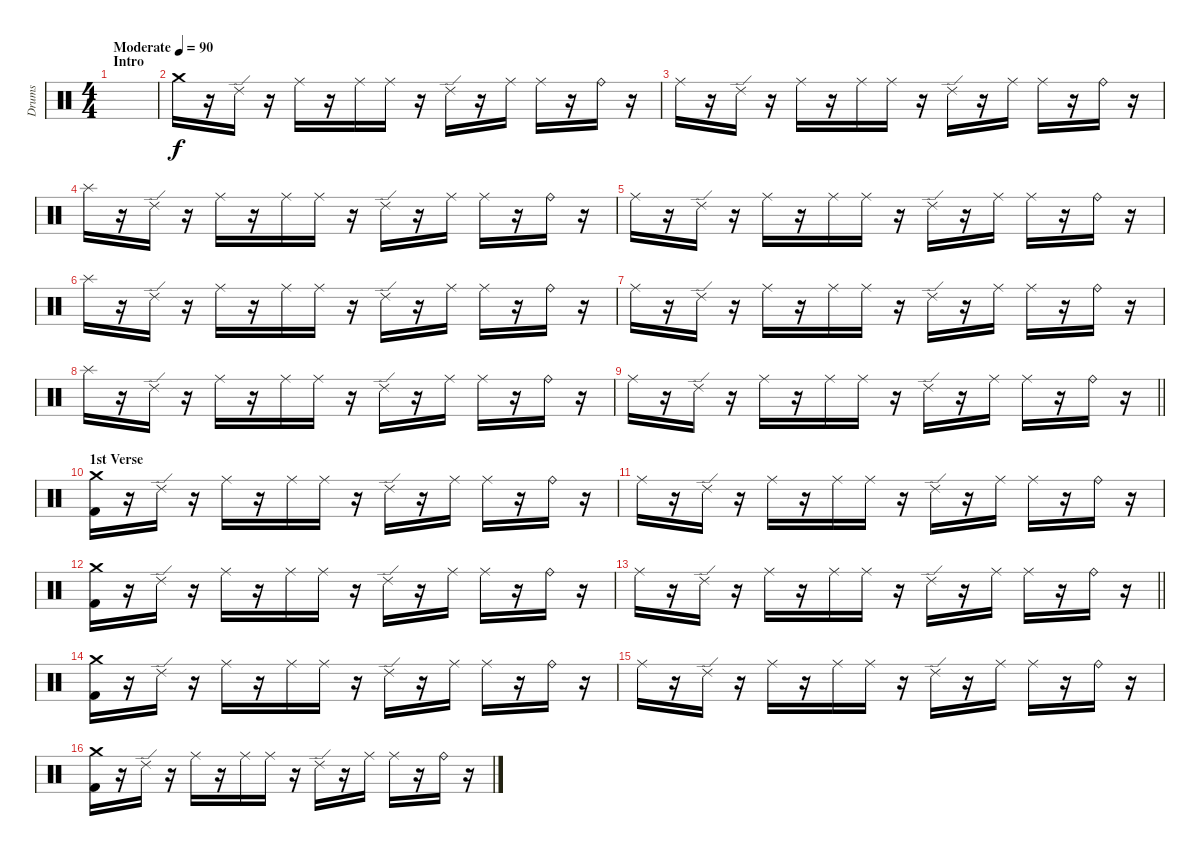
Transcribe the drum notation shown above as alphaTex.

\track ("Drums" "Drums") {instrument percussion}
\staff {score}
\articulation defaults
\ts (4 4)
\section ("" "Intro")
\tempo (90 "Moderate")
\clef neutral
\ks c
|
"Crash medium (hit)".16 r.16 "Ride (edge) 2".16 r.16 "Ride (middle)".16 r.16 "Ride (middle)".16 "Ride (middle)".16 r.16 "Ride (edge) 2".16 r.16 "Ride (middle)".16 "Ride (middle)".16 r.16 "Ride (bell)".16 r.16 |
"Ride (middle)".16 r.16 "Ride (edge) 2".16 r.16 "Ride (middle)".16 r.16 "Ride (middle)".16 "Ride (middle)".16 r.16 "Ride (edge) 2".16 r.16 "Ride (middle)".16 "Ride (middle)".16 r.16 "Ride (bell)".16 r.16 |
"Splash (hit)".16 r.16 "Ride (edge) 2".16 r.16 "Ride (middle)".16 r.16 "Ride (middle)".16 "Ride (middle)".16 r.16 "Ride (edge) 2".16 r.16 "Ride (middle)".16 "Ride (middle)".16 r.16 "Ride (bell)".16 r.16 |
"Ride (middle)".16 r.16 "Ride (edge) 2".16 r.16 "Ride (middle)".16 r.16 "Ride (middle)".16 "Ride (middle)".16 r.16 "Ride (edge) 2".16 r.16 "Ride (middle)".16 "Ride (middle)".16 r.16 "Ride (bell)".16 r.16 |
"Splash (hit)".16 r.16 "Ride (edge) 2".16 r.16 "Ride (middle)".16 r.16 "Ride (middle)".16 "Ride (middle)".16 r.16 "Ride (edge) 2".16 r.16 "Ride (middle)".16 "Ride (middle)".16 r.16 "Ride (bell)".16 r.16 |
"Ride (middle)".16 r.16 "Ride (edge) 2".16 r.16 "Ride (middle)".16 r.16 "Ride (middle)".16 "Ride (middle)".16 r.16 "Ride (edge) 2".16 r.16 "Ride (middle)".16 "Ride (middle)".16 r.16 "Ride (bell)".16 r.16 |
"Splash (hit)".16 r.16 "Ride (edge) 2".16 r.16 "Ride (middle)".16 r.16 "Ride (middle)".16 "Ride (middle)".16 r.16 "Ride (edge) 2".16 r.16 "Ride (middle)".16 "Ride (middle)".16 r.16 "Ride (bell)".16 r.16 |
\barLineRight lightlight "Ride (middle)".16
r.16 "Ride (edge) 2".16 r.16 "Ride (middle)".16 r.16 "Ride (middle)".16 "Ride (middle)".16 r.16 "Ride (edge) 2".16 r.16 "Ride (middle)".16 "Ride (middle)".16 r.16 "Ride (bell)".16 r.16 |
\section ("" "1st Verse")
("Crash medium (hit)" "Kick (hit) 2").16 r.16 "Ride (edge) 2".16 r.16 "Ride (middle)".16 r.16 "Ride (middle)".16 "Ride (middle)".16 r.16 "Ride (edge) 2".16 r.16 "Ride (middle)".16 "Ride (middle)".16 r.16 "Ride (bell)".16 r.16 |
"Ride (middle)".16 r.16 "Ride (edge) 2".16 r.16 "Ride (middle)".16 r.16 "Ride (middle)".16 "Ride (middle)".16 r.16 "Ride (edge) 2".16 r.16 "Ride (middle)".16 "Ride (middle)".16 r.16 "Ride (bell)".16 r.16 |
("Crash medium (hit)" "Kick (hit) 2").16 r.16 "Ride (edge) 2".16 r.16 "Ride (middle)".16 r.16 "Ride (middle)".16 "Ride (middle)".16 r.16 "Ride (edge) 2".16 r.16 "Ride (middle)".16 "Ride (middle)".16 r.16 "Ride (bell)".16 r.16 |
\barLineRight lightlight "Ride (middle)".16
r.16 "Ride (edge) 2".16 r.16 "Ride (middle)".16 r.16 "Ride (middle)".16 "Ride (middle)".16 r.16 "Ride (edge) 2".16 r.16 "Ride (middle)".16 "Ride (middle)".16 r.16 "Ride (bell)".16 r.16 |
("Crash medium (hit)" "Kick (hit) 2").16 r.16 "Ride (edge) 2".16 r.16 "Ride (middle)".16 r.16 "Ride (middle)".16 "Ride (middle)".16 r.16 "Ride (edge) 2".16 r.16 "Ride (middle)".16 "Ride (middle)".16 r.16 "Ride (bell)".16 r.16 |
"Ride (middle)".16 r.16 "Ride (edge) 2".16 r.16 "Ride (middle)".16 r.16 "Ride (middle)".16 "Ride (middle)".16 r.16 "Ride (edge) 2".16 r.16 "Ride (middle)".16 "Ride (middle)".16 r.16 "Ride (bell)".16 r.16 |
("Crash medium (hit)" "Kick (hit) 2").16 r.16 "Ride (edge) 2".16 r.16 "Ride (middle)".16 r.16 "Ride (middle)".16 "Ride (middle)".16 r.16 "Ride (edge) 2".16 r.16 "Ride (middle)".16 "Ride (middle)".16 r.16 "Ride (bell)".16 r.16
